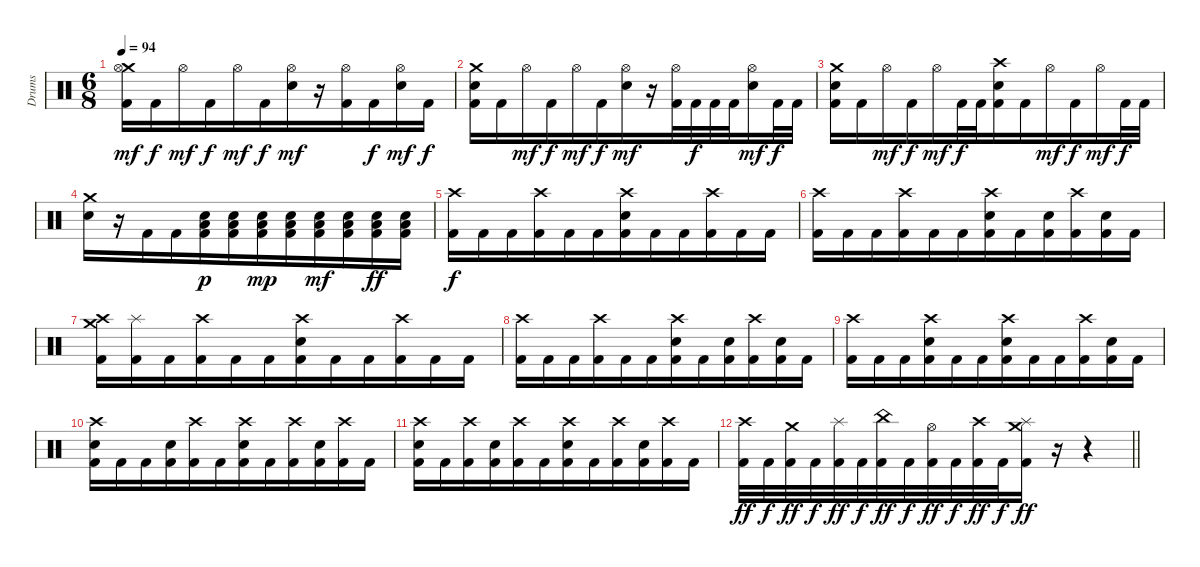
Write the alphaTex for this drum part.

\track ("Drums" "Drums") {instrument percussion}
\staff {score}
\articulation defaults
\ts (6 8)
\tempo 94
\clef neutral
\ks c
("Crash medium (hit)" "Hi-Hat (open)" "Kick (hit) 2").16{dy mf beam merge} "Kick (hit) 2".16{dy f beam merge} "Hi-Hat (open)".16{dy mf beam merge} "Kick (hit) 2".16{dy f} "Hi-Hat (open)".16{dy mf beam merge} "Kick (hit) 2".16{dy f beam merge} ("Hi-Hat (open)" "Snare (hit) 2").16{dy mf} r.16 ("Hi-Hat (open)" "Kick (hit) 2").16 "Kick (hit) 2".16{dy f} ("Hi-Hat (open)" "Snare (hit) 2").16{dy mf} "Kick (hit) 2".16{dy f} |
("Crash medium (hit)" "Snare (hit) 2" "Kick (hit) 2").16{beam merge} "Kick (hit) 2".16{beam merge} "Hi-Hat (open)".16{dy mf beam merge} "Kick (hit) 2".16{dy f} "Hi-Hat (open)".16{dy mf beam merge} "Kick (hit) 2".16{dy f beam merge} ("Hi-Hat (open)" "Snare (hit) 2").16{dy mf} r.16 ("Hi-Hat (open)" "Kick (hit) 2").32 "Kick (hit) 2".32{dy f} "Kick (hit) 2".32 "Kick (hit) 2".32 ("Hi-Hat (open)" "Snare (hit) 2").16{dy mf} "Kick (hit) 2".32{dy f} "Kick (hit) 2".32 |
("Crash medium (hit)" "Snare (hit) 2" "Kick (hit) 2").16{beam merge} "Kick (hit) 2".16{beam merge} "Hi-Hat (open)".16{dy mf beam merge} "Kick (hit) 2".16{dy f} "Hi-Hat (open)".16{dy mf} "Kick (hit) 2".32{dy f beam merge} "Kick (hit) 2".32{beam merge} ("Crash high (hit)" "Snare (hit) 2" "Kick (hit) 2").16 "Kick (hit) 2".16 "Hi-Hat (open)".16{dy mf} "Kick (hit) 2".16{dy f} "Hi-Hat (open)".16{dy mf} "Kick (hit) 2".32{dy f beam merge} "Kick (hit) 2".32 |
("Crash medium (hit)" "Snare (hit) 2").16{beam merge} r.16{beam merge} "Kick (hit) 2".16{beam merge} "Kick (hit) 2".16 ("Low Floor Tom (hit)" "Snare (hit) 2" "Kick (hit) 2").16{dy p beam merge} ("Low Floor Tom (hit)" "Snare (hit) 2" "Kick (hit) 2").16{beam merge} ("Low Floor Tom (hit)" "Snare (hit) 2" "Kick (hit) 2").16{dy mp} ("Low Floor Tom (hit)" "Snare (hit) 2" "Kick (hit) 2").16{beam merge} ("Low Floor Tom (hit)" "Snare (hit) 2" "Kick (hit) 2").16{dy mf} ("Low Floor Tom (hit)" "Snare (hit) 2" "Kick (hit) 2").16 ("Low Floor Tom (hit)" "Snare (hit) 2" "Kick (hit) 2").16{dy ff} ("Low Floor Tom (hit)" "Snare (hit) 2" "Kick (hit) 2").16 |
("Crash high (hit)" "Kick (hit) 2").16{dy f beam merge} "Kick (hit) 2".16{beam merge} "Kick (hit) 2".16 ("Crash high (hit)" "Kick (hit) 2").16 "Kick (hit) 2".16{beam merge} "Kick (hit) 2".16{beam merge} ("Crash high (hit)" "Snare (hit) 2" "Kick (hit) 2").16 "Kick (hit) 2".16 "Kick (hit) 2".16{beam merge} ("Crash high (hit)" "Kick (hit) 2").16{beam merge} "Kick (hit) 2".16{beam merge} "Kick (hit) 2".16 |
("Crash high (hit)" "Kick (hit) 2").16{beam merge} "Kick (hit) 2".16{beam merge} "Kick (hit) 2".16 ("Crash high (hit)" "Kick (hit) 2").16 "Kick (hit) 2".16{beam merge} "Kick (hit) 2".16{beam merge} ("Crash high (hit)" "Snare (hit) 2" "Kick (hit) 2").16 "Kick (hit) 2".16 ("Snare (hit) 2" "Kick (hit) 2").16{beam merge} ("Crash high (hit)" "Kick (hit) 2").16{beam merge} ("Snare (hit) 2" "Kick (hit) 2").16{beam merge} "Kick (hit) 2".16 |
("Crash high (hit)" "Crash medium (hit)" "Kick (hit) 2").16{beam merge} ("Splash (hit)" "Kick (hit) 2").16{beam merge} "Kick (hit) 2".16 ("Crash high (hit)" "Kick (hit) 2").16 "Kick (hit) 2".16{beam merge} "Kick (hit) 2".16{beam merge} ("Crash high (hit)" "Snare (hit) 2" "Kick (hit) 2").16 "Kick (hit) 2".16 "Kick (hit) 2".16{beam merge} ("Crash high (hit)" "Kick (hit) 2").16{beam merge} "Kick (hit) 2".16{beam merge} "Kick (hit) 2".16 |
("Crash high (hit)" "Kick (hit) 2").16{beam merge} "Kick (hit) 2".16{beam merge} "Kick (hit) 2".16 ("Crash high (hit)" "Kick (hit) 2").16 "Kick (hit) 2".16{beam merge} "Kick (hit) 2".16{beam merge} ("Crash high (hit)" "Snare (hit) 2" "Kick (hit) 2").16 "Kick (hit) 2".16 ("Snare (hit) 2" "Kick (hit) 2").16{beam merge} ("Crash high (hit)" "Kick (hit) 2").16{beam merge} ("Snare (hit) 2" "Kick (hit) 2").16{beam merge} "Kick (hit) 2".16 |
("Crash high (hit)" "Kick (hit) 2").16{beam merge} "Kick (hit) 2".16{beam merge} "Kick (hit) 2".16 ("Crash high (hit)" "Snare (hit) 2" "Kick (hit) 2").16 "Kick (hit) 2".16{beam merge} "Kick (hit) 2".16{beam merge} ("Crash high (hit)" "Snare (hit) 2" "Kick (hit) 2").16 "Kick (hit) 2".16 "Kick (hit) 2".16{beam merge} ("Crash high (hit)" "Kick (hit) 2").16{beam merge} ("Snare (hit) 2" "Kick (hit) 2").16{beam merge} "Kick (hit) 2".16 |
("Crash high (hit)" "Snare (hit) 2" "Kick (hit) 2").16{beam merge} "Kick (hit) 2".16{beam merge} "Kick (hit) 2".16 ("Snare (hit) 2" "Kick (hit) 2").16 ("Crash high (hit)" "Kick (hit) 2").16{beam merge} "Kick (hit) 2".16{beam merge} ("Crash high (hit)" "Snare (hit) 2" "Kick (hit) 2").16 "Kick (hit) 2".16 ("Crash high (hit)" "Kick (hit) 2").16{beam merge} ("Snare (hit) 2" "Kick (hit) 2").16{beam merge} ("Crash high (hit)" "Kick (hit) 2").16{beam merge} "Kick (hit) 2".16 |
("Crash high (hit)" "Snare (hit) 2" "Kick (hit) 2").16{beam merge} "Kick (hit) 2".16{beam merge} ("Crash high (hit)" "Kick (hit) 2").16 ("Snare (hit) 2" "Kick (hit) 2").16 ("Crash high (hit)" "Kick (hit) 2").16{beam merge} "Kick (hit) 2".16{beam merge} ("Crash high (hit)" "Snare (hit) 2" "Kick (hit) 2").16 "Kick (hit) 2".16 ("Crash high (hit)" "Kick (hit) 2").16{beam merge} ("Snare (hit) 2" "Kick (hit) 2").16{beam merge} ("Crash high (hit)" "Kick (hit) 2").16{beam merge} "Kick (hit) 2".16 |
\barLineRight lightlight
("Crash high (hit)" "Kick (hit) 2").32{dy ff beam merge} "Kick (hit) 2".32{dy f} ("Crash medium (hit)" "Kick (hit) 2").32{dy ff beam merge} "Kick (hit) 2".32{dy f} ("Splash (hit)" "Kick (hit) 2").32{dy ff} "Kick (hit) 2".32{dy f beam merge} ("China (hit)" "Kick (hit) 2").32{dy ff beam merge} "Kick (hit) 2".32{dy f beam merge} ("Hi-Hat (open)" "Kick (hit) 2").32{dy ff beam merge} "Kick (hit) 2".32{dy f beam merge} ("Crash high (hit)" "Kick (hit) 2").32{dy ff beam merge} "Kick (hit) 2".32{dy f beam merge} ("Crash medium (hit)" "Splash (hit)" "Kick (hit) 2").16{dy ff} r.16{beam merge} r.4
